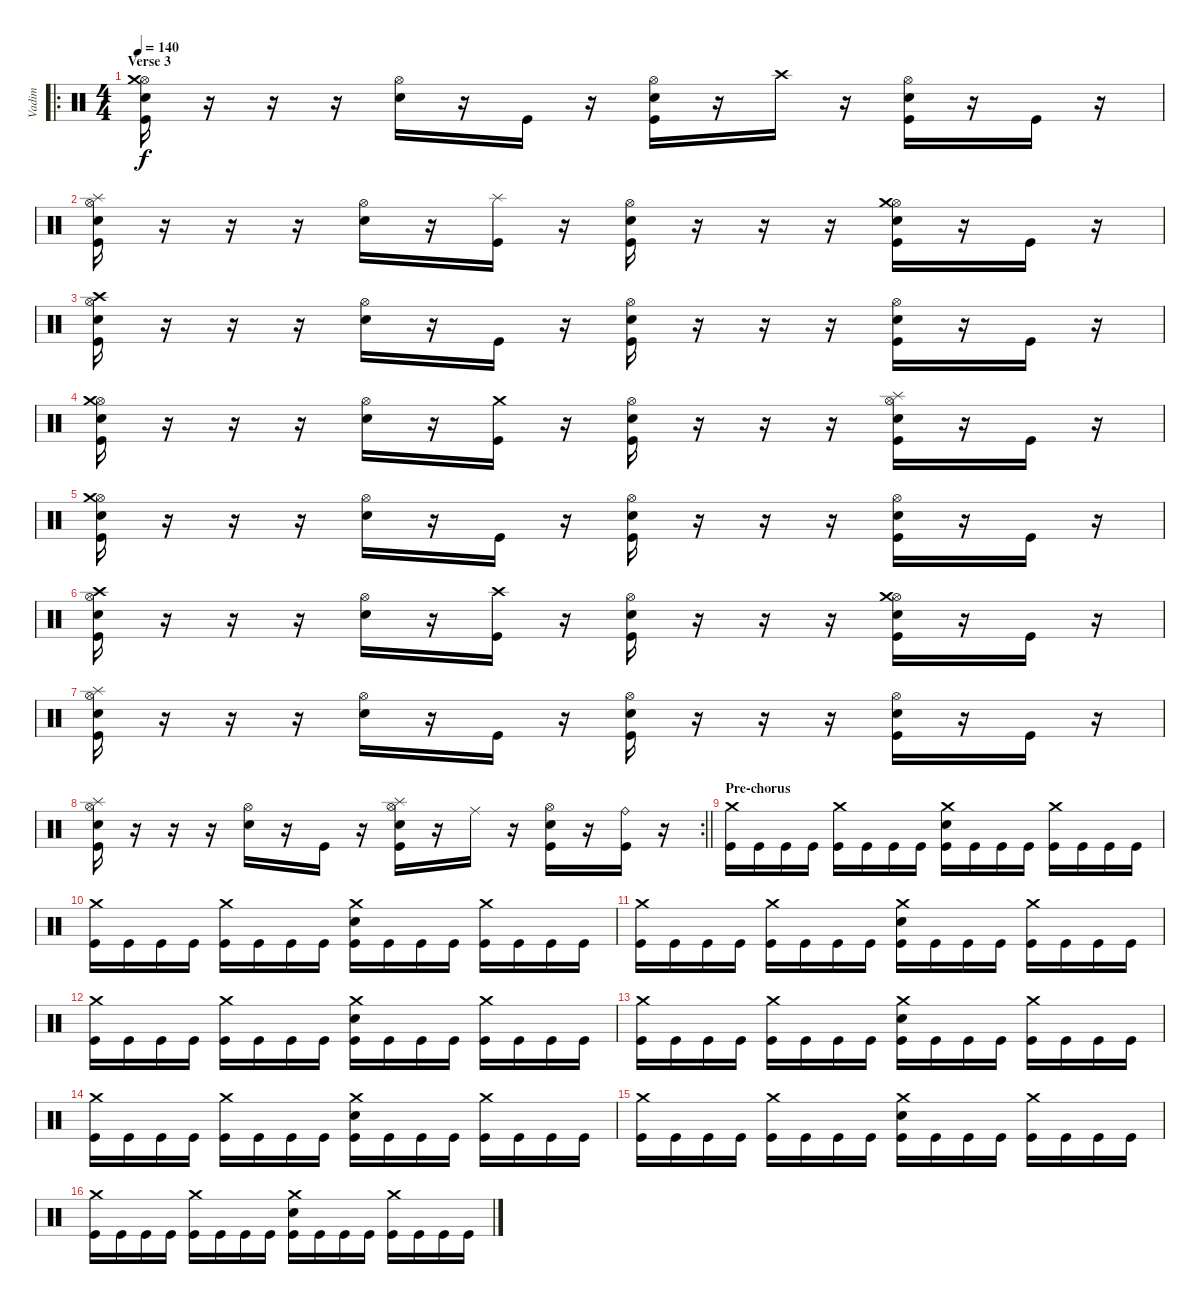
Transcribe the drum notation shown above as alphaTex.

\track ("Vadim" "Vadim") {instrument percussion}
\staff {score}
\articulation defaults
\ro
\ts (4 4)
\section ("" "Verse 3")
\tempo 140
\clef neutral
\ks c
("Hi-Hat (open)" "Crash medium (hit)" "Electric Snare (hit)" "Kick (hit)").16{dy f} r.16 r.16 r.16 ("Hi-Hat (open)" "Electric Snare (hit)").16 r.16 "Kick (hit)".16 r.16 ("Hi-Hat (open)" "Electric Snare (hit)" "Kick (hit)").16 r.16 "Crash high (hit)".16 r.16 ("Hi-Hat (open)" "Electric Snare (hit)" "Kick (hit)").16 r.16 "Kick (hit)".16 r.16 |
("Hi-Hat (open)" "Splash (hit)" "Electric Snare (hit)" "Kick (hit)").16 r.16 r.16 r.16 ("Hi-Hat (open)" "Electric Snare (hit)").16 r.16 ("Splash (hit)" "Kick (hit)").16 r.16 ("Hi-Hat (open)" "Electric Snare (hit)" "Kick (hit)").16 r.16 r.16 r.16 ("Hi-Hat (open)" "Crash medium (hit)" "Electric Snare (hit)" "Kick (hit)").16 r.16 "Kick (hit)".16 r.16 |
("Hi-Hat (open)" "Crash high (hit)" "Electric Snare (hit)" "Kick (hit)").16 r.16 r.16 r.16 ("Hi-Hat (open)" "Electric Snare (hit)").16 r.16 "Kick (hit)".16 r.16 ("Hi-Hat (open)" "Electric Snare (hit)" "Kick (hit)").16 r.16 r.16 r.16 ("Hi-Hat (open)" "Electric Snare (hit)" "Kick (hit)").16 r.16 "Kick (hit)".16 r.16 |
("Hi-Hat (open)" "Crash medium (hit)" "Electric Snare (hit)" "Kick (hit)").16 r.16 r.16 r.16 ("Hi-Hat (open)" "Electric Snare (hit)").16 r.16 ("Crash medium (hit)" "Kick (hit)").16 r.16 ("Hi-Hat (open)" "Electric Snare (hit)" "Kick (hit)").16 r.16 r.16 r.16 ("Hi-Hat (open)" "Splash (hit)" "Electric Snare (hit)" "Kick (hit)").16 r.16 "Kick (hit)".16 r.16 |
("Hi-Hat (open)" "Crash medium (hit)" "Electric Snare (hit)" "Kick (hit)").16 r.16 r.16 r.16 ("Hi-Hat (open)" "Electric Snare (hit)").16 r.16 "Kick (hit)".16 r.16 ("Hi-Hat (open)" "Electric Snare (hit)" "Kick (hit)").16 r.16 r.16 r.16 ("Hi-Hat (open)" "Electric Snare (hit)" "Kick (hit)").16 r.16 "Kick (hit)".16 r.16 |
("Hi-Hat (open)" "Crash high (hit)" "Electric Snare (hit)" "Kick (hit)").16 r.16 r.16 r.16 ("Hi-Hat (open)" "Electric Snare (hit)").16 r.16 ("Crash high (hit)" "Kick (hit)").16 r.16 ("Hi-Hat (open)" "Electric Snare (hit)" "Kick (hit)").16 r.16 r.16 r.16 ("Hi-Hat (open)" "Crash medium (hit)" "Electric Snare (hit)" "Kick (hit)").16 r.16 "Kick (hit)".16 r.16 |
("Hi-Hat (open)" "Splash (hit)" "Electric Snare (hit)" "Kick (hit)").16 r.16 r.16 r.16 ("Hi-Hat (open)" "Electric Snare (hit)").16 r.16 "Kick (hit)".16 r.16 ("Hi-Hat (open)" "Electric Snare (hit)" "Kick (hit)").16 r.16 r.16 r.16 ("Hi-Hat (open)" "Electric Snare (hit)" "Kick (hit)").16 r.16 "Kick (hit)".16 r.16 |
\rc 2
\barLineRight lightlight
("Hi-Hat (open)" "Splash (hit)" "Electric Snare (hit)" "Kick (hit)").16 r.16 r.16 r.16 ("Hi-Hat (open)" "Electric Snare (hit)").16 r.16 "Kick (hit)".16 r.16 ("Hi-Hat (open)" "Splash (hit)" "Electric Snare (hit)" "Kick (hit)").16 r.16 "Ride (middle)".16 r.16 ("Hi-Hat (open)" "Electric Snare (hit)" "Kick (hit)").16 r.16 ("Ride (bell)" "Kick (hit)").16 r.16 |
\section ("" "Pre-chorus")
("Crash medium (hit)" "Kick (hit)").16 "Kick (hit)".16 "Kick (hit)".16 "Kick (hit)".16 ("Crash medium (hit)" "Kick (hit)").16 "Kick (hit)".16 "Kick (hit)".16 "Kick (hit)".16 ("Crash medium (hit)" "Electric Snare (hit)" "Kick (hit)").16 "Kick (hit)".16 "Kick (hit)".16 "Kick (hit)".16 ("Crash medium (hit)" "Kick (hit)").16 "Kick (hit)".16 "Kick (hit)".16 "Kick (hit)".16 |
("Crash medium (hit)" "Kick (hit)").16 "Kick (hit)".16 "Kick (hit)".16 "Kick (hit)".16 ("Crash medium (hit)" "Kick (hit)").16 "Kick (hit)".16 "Kick (hit)".16 "Kick (hit)".16 ("Crash medium (hit)" "Electric Snare (hit)" "Kick (hit)").16 "Kick (hit)".16 "Kick (hit)".16 "Kick (hit)".16 ("Crash medium (hit)" "Kick (hit)").16 "Kick (hit)".16 "Kick (hit)".16 "Kick (hit)".16 |
("Crash medium (hit)" "Kick (hit)").16 "Kick (hit)".16 "Kick (hit)".16 "Kick (hit)".16 ("Crash medium (hit)" "Kick (hit)").16 "Kick (hit)".16 "Kick (hit)".16 "Kick (hit)".16 ("Crash medium (hit)" "Electric Snare (hit)" "Kick (hit)").16 "Kick (hit)".16 "Kick (hit)".16 "Kick (hit)".16 ("Crash medium (hit)" "Kick (hit)").16 "Kick (hit)".16 "Kick (hit)".16 "Kick (hit)".16 |
("Crash medium (hit)" "Kick (hit)").16 "Kick (hit)".16 "Kick (hit)".16 "Kick (hit)".16 ("Crash medium (hit)" "Kick (hit)").16 "Kick (hit)".16 "Kick (hit)".16 "Kick (hit)".16 ("Crash medium (hit)" "Electric Snare (hit)" "Kick (hit)").16 "Kick (hit)".16 "Kick (hit)".16 "Kick (hit)".16 ("Crash medium (hit)" "Kick (hit)").16 "Kick (hit)".16 "Kick (hit)".16 "Kick (hit)".16 |
("Crash medium (hit)" "Kick (hit)").16 "Kick (hit)".16 "Kick (hit)".16 "Kick (hit)".16 ("Crash medium (hit)" "Kick (hit)").16 "Kick (hit)".16 "Kick (hit)".16 "Kick (hit)".16 ("Crash medium (hit)" "Electric Snare (hit)" "Kick (hit)").16 "Kick (hit)".16 "Kick (hit)".16 "Kick (hit)".16 ("Crash medium (hit)" "Kick (hit)").16 "Kick (hit)".16 "Kick (hit)".16 "Kick (hit)".16 |
("Crash medium (hit)" "Kick (hit)").16 "Kick (hit)".16 "Kick (hit)".16 "Kick (hit)".16 ("Crash medium (hit)" "Kick (hit)").16 "Kick (hit)".16 "Kick (hit)".16 "Kick (hit)".16 ("Crash medium (hit)" "Electric Snare (hit)" "Kick (hit)").16 "Kick (hit)".16 "Kick (hit)".16 "Kick (hit)".16 ("Crash medium (hit)" "Kick (hit)").16 "Kick (hit)".16 "Kick (hit)".16 "Kick (hit)".16 |
("Crash medium (hit)" "Kick (hit)").16 "Kick (hit)".16 "Kick (hit)".16 "Kick (hit)".16 ("Crash medium (hit)" "Kick (hit)").16 "Kick (hit)".16 "Kick (hit)".16 "Kick (hit)".16 ("Crash medium (hit)" "Electric Snare (hit)" "Kick (hit)").16 "Kick (hit)".16 "Kick (hit)".16 "Kick (hit)".16 ("Crash medium (hit)" "Kick (hit)").16 "Kick (hit)".16 "Kick (hit)".16 "Kick (hit)".16 |
("Crash medium (hit)" "Kick (hit)").16 "Kick (hit)".16 "Kick (hit)".16 "Kick (hit)".16 ("Crash medium (hit)" "Kick (hit)").16 "Kick (hit)".16 "Kick (hit)".16 "Kick (hit)".16 ("Crash medium (hit)" "Electric Snare (hit)" "Kick (hit)").16 "Kick (hit)".16 "Kick (hit)".16 "Kick (hit)".16 ("Crash medium (hit)" "Kick (hit)").16 "Kick (hit)".16 "Kick (hit)".16 "Kick (hit)".16
